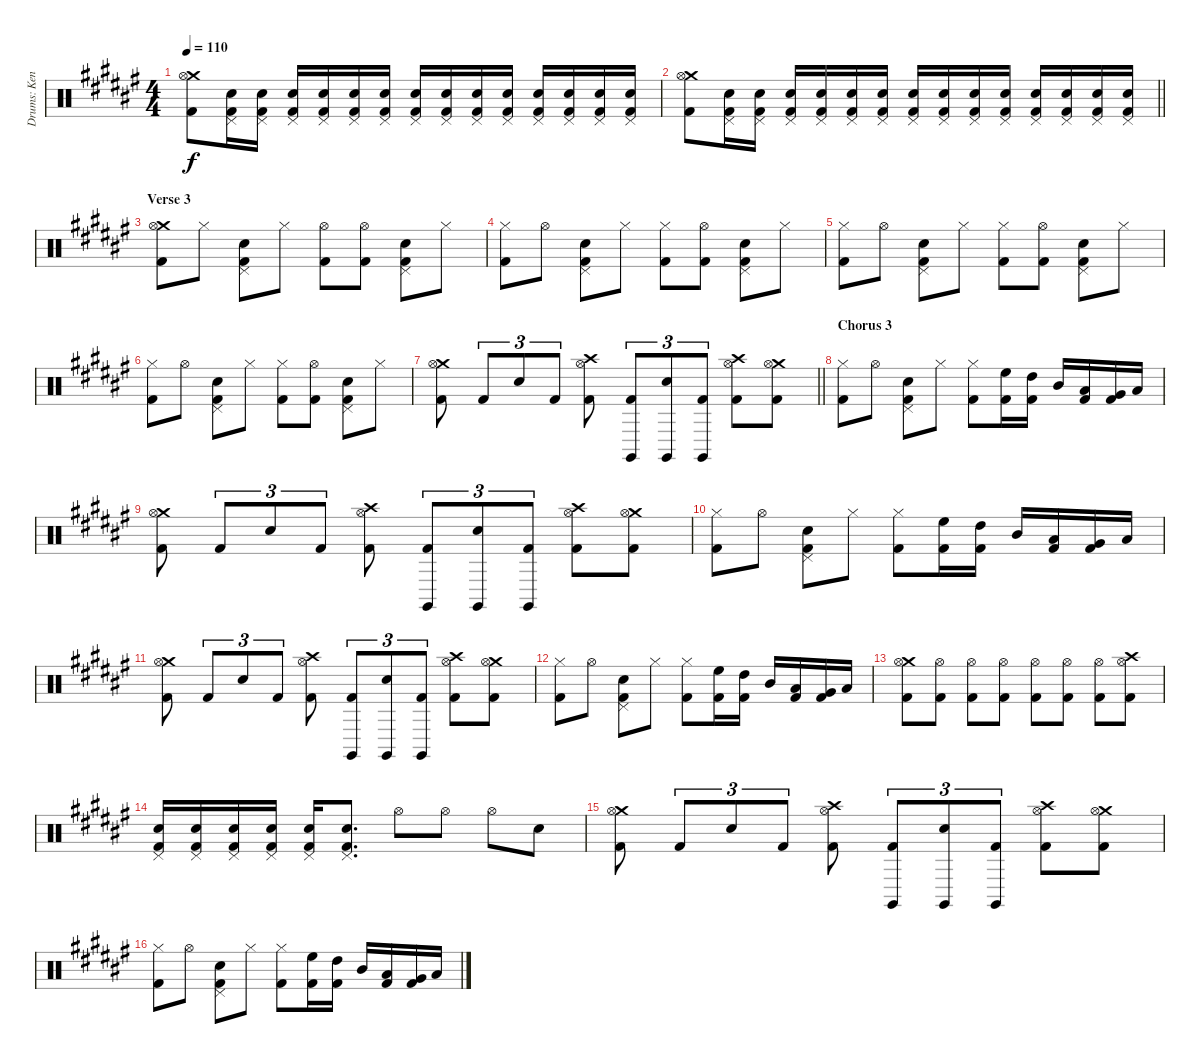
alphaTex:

\track ("Drums: Kenny Aronoff" "Drums: Ken") {instrument percussion}
\staff {score}
\articulation defaults
\ts (4 4)
\tempo 110
\clef neutral
\ks f#
("Crash medium (hit)" "Hi-Hat (open)" "Kick (hit) 2").8{dy f} ("Pedal Hi-Hat (hit)" "Snare (hit) 2" "Kick (hit) 2").16 ("Pedal Hi-Hat (hit)" "Snare (hit) 2" "Kick (hit) 2").16 ("Pedal Hi-Hat (hit)" "Snare (hit) 2" "Kick (hit) 2").16 ("Pedal Hi-Hat (hit)" "Snare (hit) 2" "Kick (hit) 2").16 ("Pedal Hi-Hat (hit)" "Snare (hit) 2" "Kick (hit) 2").16 ("Pedal Hi-Hat (hit)" "Snare (hit) 2" "Kick (hit) 2").16 ("Pedal Hi-Hat (hit)" "Snare (hit) 2" "Kick (hit) 2").16 ("Pedal Hi-Hat (hit)" "Snare (hit) 2" "Kick (hit) 2").16 ("Pedal Hi-Hat (hit)" "Snare (hit) 2" "Kick (hit) 2").16 ("Pedal Hi-Hat (hit)" "Snare (hit) 2" "Kick (hit) 2").16 ("Pedal Hi-Hat (hit)" "Snare (hit) 2" "Kick (hit) 2").16 ("Pedal Hi-Hat (hit)" "Snare (hit) 2" "Kick (hit) 2").16 ("Pedal Hi-Hat (hit)" "Snare (hit) 2" "Kick (hit) 2").16 ("Pedal Hi-Hat (hit)" "Snare (hit) 2" "Kick (hit) 2").16 |
\barLineRight lightlight
("Crash medium (hit)" "Hi-Hat (open)" "Kick (hit) 2").8 ("Pedal Hi-Hat (hit)" "Snare (hit) 2" "Kick (hit) 2").16 ("Pedal Hi-Hat (hit)" "Snare (hit) 2" "Kick (hit) 2").16 ("Pedal Hi-Hat (hit)" "Snare (hit) 2" "Kick (hit) 2").16 ("Pedal Hi-Hat (hit)" "Snare (hit) 2" "Kick (hit) 2").16 ("Pedal Hi-Hat (hit)" "Snare (hit) 2" "Kick (hit) 2").16 ("Pedal Hi-Hat (hit)" "Snare (hit) 2" "Kick (hit) 2").16 ("Pedal Hi-Hat (hit)" "Snare (hit) 2" "Kick (hit) 2").16 ("Pedal Hi-Hat (hit)" "Snare (hit) 2" "Kick (hit) 2").16 ("Pedal Hi-Hat (hit)" "Snare (hit) 2" "Kick (hit) 2").16 ("Pedal Hi-Hat (hit)" "Snare (hit) 2" "Kick (hit) 2").16 ("Pedal Hi-Hat (hit)" "Snare (hit) 2" "Kick (hit) 2").16 ("Pedal Hi-Hat (hit)" "Snare (hit) 2" "Kick (hit) 2").16 ("Pedal Hi-Hat (hit)" "Snare (hit) 2" "Kick (hit) 2").16 ("Pedal Hi-Hat (hit)" "Snare (hit) 2" "Kick (hit) 2").16 |
\section ("" "Verse 3")
("Crash medium (hit)" "Hi-Hat (open)" "Kick (hit) 2").8 "Hi-Hat (closed)".8 ("Pedal Hi-Hat (hit)" "Snare (hit) 2" "Kick (hit) 2").8 "Hi-Hat (closed)".8 ("Hi-Hat (open)" "Kick (hit) 2").8 ("Hi-Hat (open)" "Kick (hit) 2").8 ("Pedal Hi-Hat (hit)" "Snare (hit) 2" "Kick (hit) 2").8 "Hi-Hat (closed)".8 |
("Hi-Hat (closed)" "Kick (hit) 2").8 "Hi-Hat (open)".8 ("Pedal Hi-Hat (hit)" "Snare (hit) 2" "Kick (hit) 2").8 "Hi-Hat (closed)".8 ("Hi-Hat (closed)" "Kick (hit) 2").8 ("Hi-Hat (open)" "Kick (hit) 2").8 ("Pedal Hi-Hat (hit)" "Snare (hit) 2" "Kick (hit) 2").8 "Hi-Hat (closed)".8 |
("Hi-Hat (closed)" "Kick (hit) 2").8 "Hi-Hat (open)".8 ("Pedal Hi-Hat (hit)" "Snare (hit) 2" "Kick (hit) 2").8 "Hi-Hat (closed)".8 ("Hi-Hat (closed)" "Kick (hit) 2").8 ("Hi-Hat (open)" "Kick (hit) 2").8 ("Pedal Hi-Hat (hit)" "Snare (hit) 2" "Kick (hit) 2").8 "Hi-Hat (closed)".8 |
("Hi-Hat (closed)" "Kick (hit) 2").8 "Hi-Hat (open)".8 ("Pedal Hi-Hat (hit)" "Snare (hit) 2" "Kick (hit) 2").8 "Hi-Hat (closed)".8 ("Hi-Hat (closed)" "Kick (hit) 2").8 ("Hi-Hat (open)" "Kick (hit) 2").8 ("Pedal Hi-Hat (hit)" "Snare (hit) 2" "Kick (hit) 2").8 "Hi-Hat (closed)".8 |
\barLineRight lightlight
("Crash medium (hit)" "Hi-Hat (open)" "Kick (hit) 2").8 "Kick (hit) 2".8{tu (3 2)} "Snare (hit) 2".8{tu (3 2)} "Kick (hit) 2".8{tu (3 2)} ("Crash high (hit)" "Hi-Hat (open)" "Kick (hit) 2").8 ("Claves (hit)" "Kick (hit) 2").8{tu (3 2)} ("Claves (hit)" "Snare (hit) 2").8{tu (3 2)} ("Claves (hit)" "Kick (hit) 2").8{tu (3 2)} ("Crash high (hit)" "Hi-Hat (open)" "Kick (hit) 2").8 ("Crash medium (hit)" "Hi-Hat (open)" "Kick (hit) 2").8 |
\section ("" "Chorus 3")
("Hi-Hat (closed)" "Kick (hit) 2").8 "Hi-Hat (open)".8 ("Pedal Hi-Hat (hit)" "Snare (hit) 2" "Kick (hit) 2").8 "Hi-Hat (closed)".8 ("Hi-Hat (closed)" "Kick (hit) 2").8 ("High Floor Tom (hit)" "Kick (hit) 2").16 ("High Tom (hit)" "Kick (hit) 2").16 "Mid Tom (hit)".16 ("Low Tom (hit)" "Kick (hit) 2").16 ("Very Low Tom (hit)" "Kick (hit) 2").16 "Low Floor Tom (hit)".16 |
("Crash medium (hit)" "Hi-Hat (open)" "Kick (hit) 2").8 "Kick (hit) 2".8{tu (3 2)} "Snare (hit) 2".8{tu (3 2)} "Kick (hit) 2".8{tu (3 2)} ("Crash high (hit)" "Hi-Hat (open)" "Kick (hit) 2").8 ("Claves (hit)" "Kick (hit) 2").8{tu (3 2)} ("Claves (hit)" "Snare (hit) 2").8{tu (3 2)} ("Claves (hit)" "Kick (hit) 2").8{tu (3 2)} ("Crash high (hit)" "Hi-Hat (open)" "Kick (hit) 2").8 ("Crash medium (hit)" "Hi-Hat (open)" "Kick (hit) 2").8 |
("Hi-Hat (closed)" "Kick (hit) 2").8 "Hi-Hat (open)".8 ("Pedal Hi-Hat (hit)" "Snare (hit) 2" "Kick (hit) 2").8 "Hi-Hat (closed)".8 ("Hi-Hat (closed)" "Kick (hit) 2").8 ("High Floor Tom (hit)" "Kick (hit) 2").16 ("High Tom (hit)" "Kick (hit) 2").16 "Mid Tom (hit)".16 ("Low Tom (hit)" "Kick (hit) 2").16 ("Very Low Tom (hit)" "Kick (hit) 2").16 "Low Floor Tom (hit)".16 |
("Crash medium (hit)" "Hi-Hat (open)" "Kick (hit) 2").8 "Kick (hit) 2".8{tu (3 2)} "Snare (hit) 2".8{tu (3 2)} "Kick (hit) 2".8{tu (3 2)} ("Crash high (hit)" "Hi-Hat (open)" "Kick (hit) 2").8 ("Claves (hit)" "Kick (hit) 2").8{tu (3 2)} ("Claves (hit)" "Snare (hit) 2").8{tu (3 2)} ("Claves (hit)" "Kick (hit) 2").8{tu (3 2)} ("Crash high (hit)" "Hi-Hat (open)" "Kick (hit) 2").8 ("Crash medium (hit)" "Hi-Hat (open)" "Kick (hit) 2").8 |
("Hi-Hat (closed)" "Kick (hit) 2").8 "Hi-Hat (open)".8 ("Pedal Hi-Hat (hit)" "Snare (hit) 2" "Kick (hit) 2").8 "Hi-Hat (closed)".8 ("Hi-Hat (closed)" "Kick (hit) 2").8 ("High Floor Tom (hit)" "Kick (hit) 2").16 ("High Tom (hit)" "Kick (hit) 2").16 "Mid Tom (hit)".16 ("Low Tom (hit)" "Kick (hit) 2").16 ("Very Low Tom (hit)" "Kick (hit) 2").16 "Low Floor Tom (hit)".16 |
("Crash medium (hit)" "Hi-Hat (open)" "Kick (hit) 2").8 ("Hi-Hat (open)" "Kick (hit) 2").8 ("Hi-Hat (open)" "Kick (hit) 2").8 ("Hi-Hat (open)" "Kick (hit) 2").8 ("Hi-Hat (open)" "Kick (hit) 2").8 ("Hi-Hat (open)" "Kick (hit) 2").8 ("Hi-Hat (open)" "Kick (hit) 2").8 ("Crash high (hit)" "Hi-Hat (open)" "Kick (hit) 2").8 |
("Pedal Hi-Hat (hit)" "Snare (hit) 2" "Kick (hit) 2").16 ("Pedal Hi-Hat (hit)" "Snare (hit) 2" "Kick (hit) 2").16 ("Pedal Hi-Hat (hit)" "Snare (hit) 2" "Kick (hit) 2").16 ("Pedal Hi-Hat (hit)" "Snare (hit) 2" "Kick (hit) 2").16 ("Pedal Hi-Hat (hit)" "Snare (hit) 2" "Kick (hit) 2").16 ("Pedal Hi-Hat (hit)" "Snare (hit) 2" "Kick (hit) 2").8{d} "Hi-Hat (open)".8 "Hi-Hat (open)".8 "Hi-Hat (open)".8 "Snare (hit) 2".8 |
("Crash medium (hit)" "Hi-Hat (open)" "Kick (hit) 2").8 "Kick (hit) 2".8{tu (3 2)} "Snare (hit) 2".8{tu (3 2)} "Kick (hit) 2".8{tu (3 2)} ("Crash high (hit)" "Hi-Hat (open)" "Kick (hit) 2").8 ("Claves (hit)" "Kick (hit) 2").8{tu (3 2)} ("Claves (hit)" "Snare (hit) 2").8{tu (3 2)} ("Claves (hit)" "Kick (hit) 2").8{tu (3 2)} ("Crash high (hit)" "Hi-Hat (open)" "Kick (hit) 2").8 ("Crash medium (hit)" "Hi-Hat (open)" "Kick (hit) 2").8 |
("Hi-Hat (closed)" "Kick (hit) 2").8 "Hi-Hat (open)".8 ("Pedal Hi-Hat (hit)" "Snare (hit) 2" "Kick (hit) 2").8 "Hi-Hat (closed)".8 ("Hi-Hat (closed)" "Kick (hit) 2").8 ("High Floor Tom (hit)" "Kick (hit) 2").16 ("High Tom (hit)" "Kick (hit) 2").16 "Mid Tom (hit)".16 ("Low Tom (hit)" "Kick (hit) 2").16 ("Very Low Tom (hit)" "Kick (hit) 2").16 "Low Floor Tom (hit)".16
